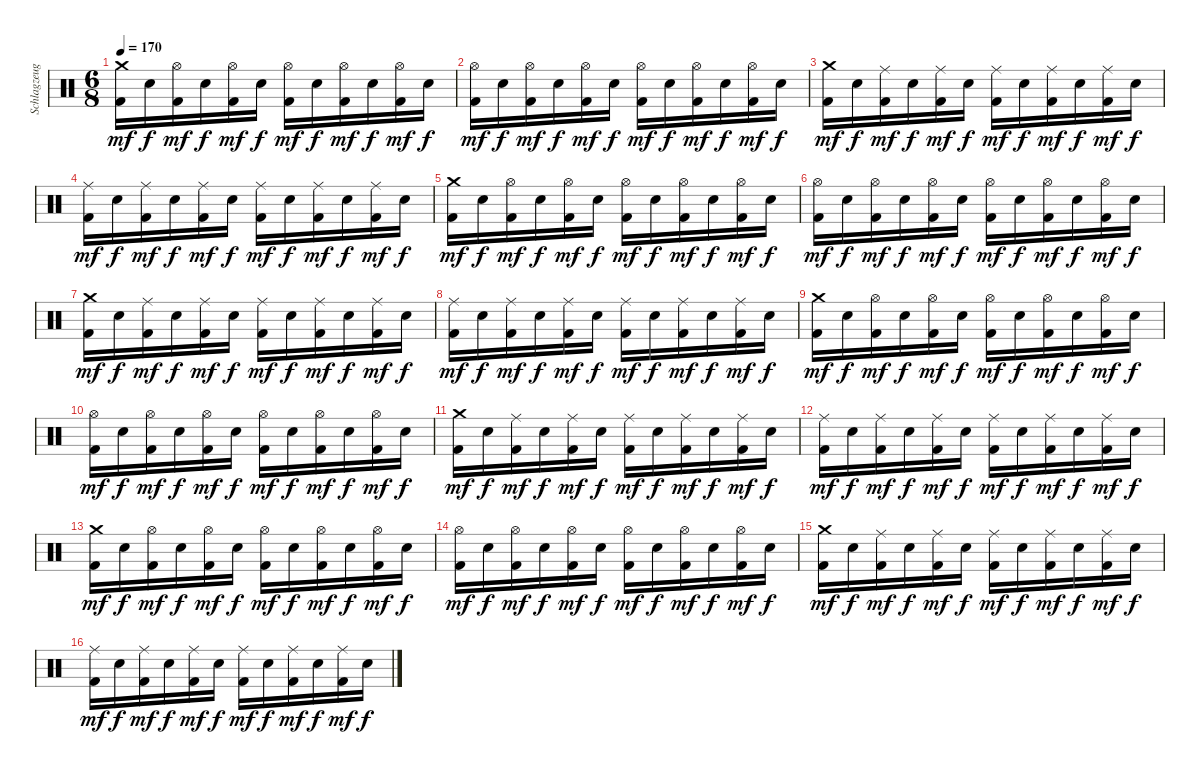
\track ("Schlagzeug" "Schlagzeug") {instrument percussion}
\staff {score}
\articulation defaults
\ts (6 8)
\tempo 170
\clef neutral
\ks c
("Crash medium (hit)" "Kick (hit) 2").16{dy mf} "Electric Snare (hit)".16{dy f} ("Hi-Hat (open)" "Kick (hit) 2").16{dy mf} "Electric Snare (hit)".16{dy f} ("Hi-Hat (open)" "Kick (hit) 2").16{dy mf} "Electric Snare (hit)".16{dy f} ("Hi-Hat (open)" "Kick (hit) 2").16{dy mf} "Electric Snare (hit)".16{dy f} ("Hi-Hat (open)" "Kick (hit) 2").16{dy mf} "Electric Snare (hit)".16{dy f} ("Hi-Hat (open)" "Kick (hit) 2").16{dy mf} "Electric Snare (hit)".16{dy f} |
("Hi-Hat (open)" "Kick (hit) 2").16{dy mf} "Electric Snare (hit)".16{dy f} ("Hi-Hat (open)" "Kick (hit) 2").16{dy mf} "Electric Snare (hit)".16{dy f} ("Hi-Hat (open)" "Kick (hit) 2").16{dy mf} "Electric Snare (hit)".16{dy f} ("Hi-Hat (open)" "Kick (hit) 2").16{dy mf} "Electric Snare (hit)".16{dy f} ("Hi-Hat (open)" "Kick (hit) 2").16{dy mf} "Electric Snare (hit)".16{dy f} ("Hi-Hat (open)" "Kick (hit) 2").16{dy mf} "Electric Snare (hit)".16{dy f} |
("Crash medium (hit)" "Kick (hit) 2").16{dy mf} "Electric Snare (hit)".16{dy f} ("Ride (middle)" "Kick (hit) 2").16{dy mf} "Electric Snare (hit)".16{dy f} ("Ride (middle)" "Kick (hit) 2").16{dy mf} "Electric Snare (hit)".16{dy f} ("Ride (middle)" "Kick (hit) 2").16{dy mf} "Electric Snare (hit)".16{dy f} ("Ride (middle)" "Kick (hit) 2").16{dy mf} "Electric Snare (hit)".16{dy f} ("Ride (middle)" "Kick (hit) 2").16{dy mf} "Electric Snare (hit)".16{dy f} |
("Ride (middle)" "Kick (hit) 2").16{dy mf} "Electric Snare (hit)".16{dy f} ("Ride (middle)" "Kick (hit) 2").16{dy mf} "Electric Snare (hit)".16{dy f} ("Ride (middle)" "Kick (hit) 2").16{dy mf} "Electric Snare (hit)".16{dy f} ("Ride (middle)" "Kick (hit) 2").16{dy mf} "Electric Snare (hit)".16{dy f} ("Ride (middle)" "Kick (hit) 2").16{dy mf} "Electric Snare (hit)".16{dy f} ("Ride (middle)" "Kick (hit) 2").16{dy mf} "Electric Snare (hit)".16{dy f} |
("Crash medium (hit)" "Kick (hit) 2").16{dy mf} "Electric Snare (hit)".16{dy f} ("Hi-Hat (open)" "Kick (hit) 2").16{dy mf} "Electric Snare (hit)".16{dy f} ("Hi-Hat (open)" "Kick (hit) 2").16{dy mf} "Electric Snare (hit)".16{dy f} ("Hi-Hat (open)" "Kick (hit) 2").16{dy mf} "Electric Snare (hit)".16{dy f} ("Hi-Hat (open)" "Kick (hit) 2").16{dy mf} "Electric Snare (hit)".16{dy f} ("Hi-Hat (open)" "Kick (hit) 2").16{dy mf} "Electric Snare (hit)".16{dy f} |
("Hi-Hat (open)" "Kick (hit) 2").16{dy mf} "Electric Snare (hit)".16{dy f} ("Hi-Hat (open)" "Kick (hit) 2").16{dy mf} "Electric Snare (hit)".16{dy f} ("Hi-Hat (open)" "Kick (hit) 2").16{dy mf} "Electric Snare (hit)".16{dy f} ("Hi-Hat (open)" "Kick (hit) 2").16{dy mf} "Electric Snare (hit)".16{dy f} ("Hi-Hat (open)" "Kick (hit) 2").16{dy mf} "Electric Snare (hit)".16{dy f} ("Hi-Hat (open)" "Kick (hit) 2").16{dy mf} "Electric Snare (hit)".16{dy f} |
("Crash medium (hit)" "Kick (hit) 2").16{dy mf} "Electric Snare (hit)".16{dy f} ("Ride (middle)" "Kick (hit) 2").16{dy mf} "Electric Snare (hit)".16{dy f} ("Ride (middle)" "Kick (hit) 2").16{dy mf} "Electric Snare (hit)".16{dy f} ("Ride (middle)" "Kick (hit) 2").16{dy mf} "Electric Snare (hit)".16{dy f} ("Ride (middle)" "Kick (hit) 2").16{dy mf} "Electric Snare (hit)".16{dy f} ("Ride (middle)" "Kick (hit) 2").16{dy mf} "Electric Snare (hit)".16{dy f} |
("Ride (middle)" "Kick (hit) 2").16{dy mf} "Electric Snare (hit)".16{dy f} ("Ride (middle)" "Kick (hit) 2").16{dy mf} "Electric Snare (hit)".16{dy f} ("Ride (middle)" "Kick (hit) 2").16{dy mf} "Electric Snare (hit)".16{dy f} ("Ride (middle)" "Kick (hit) 2").16{dy mf} "Electric Snare (hit)".16{dy f} ("Ride (middle)" "Kick (hit) 2").16{dy mf} "Electric Snare (hit)".16{dy f} ("Ride (middle)" "Kick (hit) 2").16{dy mf} "Electric Snare (hit)".16{dy f} |
("Crash medium (hit)" "Kick (hit) 2").16{dy mf} "Electric Snare (hit)".16{dy f} ("Hi-Hat (open)" "Kick (hit) 2").16{dy mf} "Electric Snare (hit)".16{dy f} ("Hi-Hat (open)" "Kick (hit) 2").16{dy mf} "Electric Snare (hit)".16{dy f} ("Hi-Hat (open)" "Kick (hit) 2").16{dy mf} "Electric Snare (hit)".16{dy f} ("Hi-Hat (open)" "Kick (hit) 2").16{dy mf} "Electric Snare (hit)".16{dy f} ("Hi-Hat (open)" "Kick (hit) 2").16{dy mf} "Electric Snare (hit)".16{dy f} |
("Hi-Hat (open)" "Kick (hit) 2").16{dy mf} "Electric Snare (hit)".16{dy f} ("Hi-Hat (open)" "Kick (hit) 2").16{dy mf} "Electric Snare (hit)".16{dy f} ("Hi-Hat (open)" "Kick (hit) 2").16{dy mf} "Electric Snare (hit)".16{dy f} ("Hi-Hat (open)" "Kick (hit) 2").16{dy mf} "Electric Snare (hit)".16{dy f} ("Hi-Hat (open)" "Kick (hit) 2").16{dy mf} "Electric Snare (hit)".16{dy f} ("Hi-Hat (open)" "Kick (hit) 2").16{dy mf} "Electric Snare (hit)".16{dy f} |
("Crash medium (hit)" "Kick (hit) 2").16{dy mf} "Electric Snare (hit)".16{dy f} ("Ride (middle)" "Kick (hit) 2").16{dy mf} "Electric Snare (hit)".16{dy f} ("Ride (middle)" "Kick (hit) 2").16{dy mf} "Electric Snare (hit)".16{dy f} ("Ride (middle)" "Kick (hit) 2").16{dy mf} "Electric Snare (hit)".16{dy f} ("Ride (middle)" "Kick (hit) 2").16{dy mf} "Electric Snare (hit)".16{dy f} ("Ride (middle)" "Kick (hit) 2").16{dy mf} "Electric Snare (hit)".16{dy f} |
("Ride (middle)" "Kick (hit) 2").16{dy mf} "Electric Snare (hit)".16{dy f} ("Ride (middle)" "Kick (hit) 2").16{dy mf} "Electric Snare (hit)".16{dy f} ("Ride (middle)" "Kick (hit) 2").16{dy mf} "Electric Snare (hit)".16{dy f} ("Ride (middle)" "Kick (hit) 2").16{dy mf} "Electric Snare (hit)".16{dy f} ("Ride (middle)" "Kick (hit) 2").16{dy mf} "Electric Snare (hit)".16{dy f} ("Ride (middle)" "Kick (hit) 2").16{dy mf} "Electric Snare (hit)".16{dy f} |
("Crash medium (hit)" "Kick (hit) 2").16{dy mf} "Electric Snare (hit)".16{dy f} ("Hi-Hat (open)" "Kick (hit) 2").16{dy mf} "Electric Snare (hit)".16{dy f} ("Hi-Hat (open)" "Kick (hit) 2").16{dy mf} "Electric Snare (hit)".16{dy f} ("Hi-Hat (open)" "Kick (hit) 2").16{dy mf} "Electric Snare (hit)".16{dy f} ("Hi-Hat (open)" "Kick (hit) 2").16{dy mf} "Electric Snare (hit)".16{dy f} ("Hi-Hat (open)" "Kick (hit) 2").16{dy mf} "Electric Snare (hit)".16{dy f} |
("Hi-Hat (open)" "Kick (hit) 2").16{dy mf} "Electric Snare (hit)".16{dy f} ("Hi-Hat (open)" "Kick (hit) 2").16{dy mf} "Electric Snare (hit)".16{dy f} ("Hi-Hat (open)" "Kick (hit) 2").16{dy mf} "Electric Snare (hit)".16{dy f} ("Hi-Hat (open)" "Kick (hit) 2").16{dy mf} "Electric Snare (hit)".16{dy f} ("Hi-Hat (open)" "Kick (hit) 2").16{dy mf} "Electric Snare (hit)".16{dy f} ("Hi-Hat (open)" "Kick (hit) 2").16{dy mf} "Electric Snare (hit)".16{dy f} |
("Crash medium (hit)" "Kick (hit) 2").16{dy mf} "Electric Snare (hit)".16{dy f} ("Ride (middle)" "Kick (hit) 2").16{dy mf} "Electric Snare (hit)".16{dy f} ("Ride (middle)" "Kick (hit) 2").16{dy mf} "Electric Snare (hit)".16{dy f} ("Ride (middle)" "Kick (hit) 2").16{dy mf} "Electric Snare (hit)".16{dy f} ("Ride (middle)" "Kick (hit) 2").16{dy mf} "Electric Snare (hit)".16{dy f} ("Ride (middle)" "Kick (hit) 2").16{dy mf} "Electric Snare (hit)".16{dy f} |
("Ride (middle)" "Kick (hit) 2").16{dy mf} "Electric Snare (hit)".16{dy f} ("Ride (middle)" "Kick (hit) 2").16{dy mf} "Electric Snare (hit)".16{dy f} ("Ride (middle)" "Kick (hit) 2").16{dy mf} "Electric Snare (hit)".16{dy f} ("Ride (middle)" "Kick (hit) 2").16{dy mf} "Electric Snare (hit)".16{dy f} ("Ride (middle)" "Kick (hit) 2").16{dy mf} "Electric Snare (hit)".16{dy f} ("Ride (middle)" "Kick (hit) 2").16{dy mf} "Electric Snare (hit)".16{dy f}
